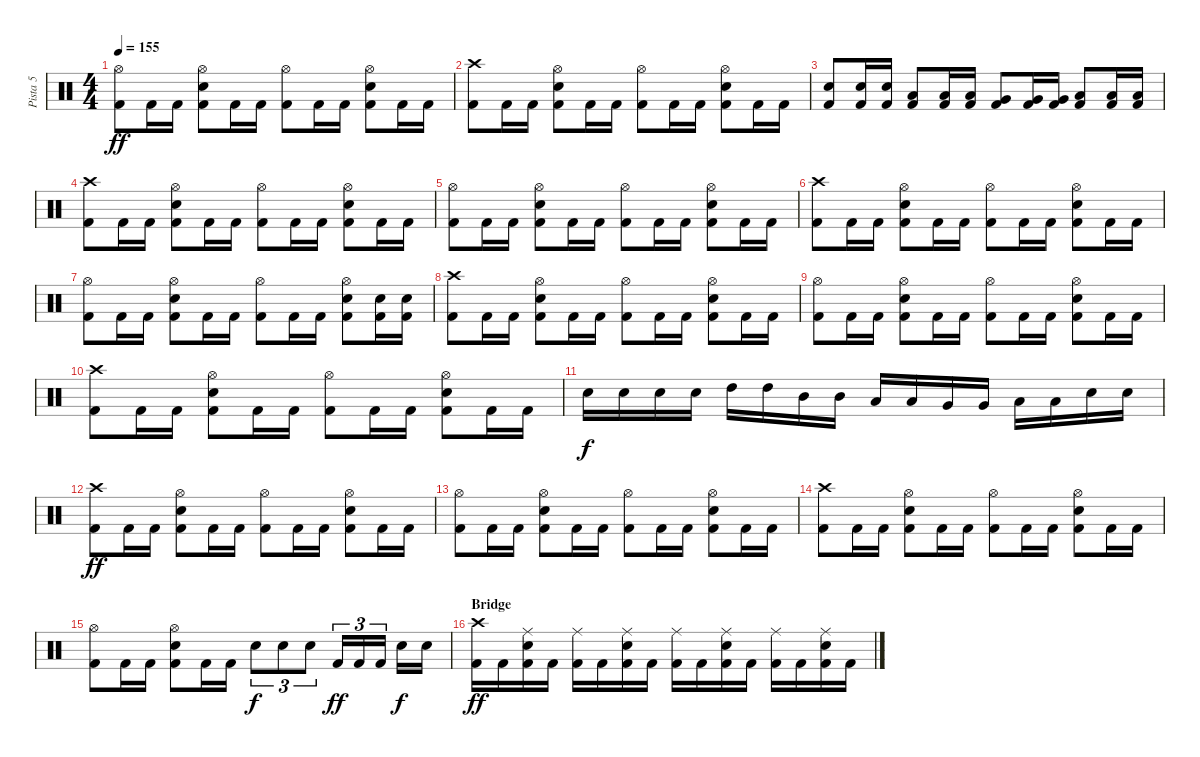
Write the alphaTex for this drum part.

\track ("Pista 5" "Pista 5") {instrument percussion}
\staff {score}
\articulation defaults
\ts (4 4)
\tempo 155
\clef neutral
\ks c
("Hi-Hat (open)" "Kick (hit) 2").8{dy ff} "Kick (hit) 2".16 "Kick (hit) 2".16 ("Hi-Hat (open)" "Electric Snare (hit)" "Kick (hit) 2").8 "Kick (hit) 2".16 "Kick (hit) 2".16 ("Hi-Hat (open)" "Kick (hit) 2").8 "Kick (hit) 2".16 "Kick (hit) 2".16 ("Hi-Hat (open)" "Electric Snare (hit)" "Kick (hit) 2").8 "Kick (hit) 2".16 "Kick (hit) 2".16 |
("Crash high (hit)" "Kick (hit) 2").8 "Kick (hit) 2".16 "Kick (hit) 2".16 ("Hi-Hat (open)" "Electric Snare (hit)" "Kick (hit) 2").8 "Kick (hit) 2".16 "Kick (hit) 2".16 ("Hi-Hat (open)" "Kick (hit) 2").8 "Kick (hit) 2".16 "Kick (hit) 2".16 ("Hi-Hat (open)" "Electric Snare (hit)" "Kick (hit) 2").8 "Kick (hit) 2".16 "Kick (hit) 2".16 |
("Electric Snare (hit)" "Kick (hit) 2").8 ("Electric Snare (hit)" "Kick (hit) 2").16 ("Electric Snare (hit)" "Kick (hit) 2").16 ("Low Tom (hit)" "Kick (hit) 2").8 ("Low Tom (hit)" "Kick (hit) 2").16 ("Low Tom (hit)" "Kick (hit) 2").16 ("Very Low Tom (hit)" "Kick (hit) 2").8 ("Very Low Tom (hit)" "Kick (hit) 2").16 ("Very Low Tom (hit)" "Kick (hit) 2").16 ("Low Floor Tom (hit)" "Kick (hit) 2").8 ("Low Floor Tom (hit)" "Kick (hit) 2").16 ("Low Floor Tom (hit)" "Kick (hit) 2").16 |
("Crash high (hit)" "Kick (hit) 2").8 "Kick (hit) 2".16 "Kick (hit) 2".16 ("Hi-Hat (open)" "Electric Snare (hit)" "Kick (hit) 2").8 "Kick (hit) 2".16 "Kick (hit) 2".16 ("Hi-Hat (open)" "Kick (hit) 2").8 "Kick (hit) 2".16 "Kick (hit) 2".16 ("Hi-Hat (open)" "Electric Snare (hit)" "Kick (hit) 2").8 "Kick (hit) 2".16 "Kick (hit) 2".16 |
("Hi-Hat (open)" "Kick (hit) 2").8 "Kick (hit) 2".16 "Kick (hit) 2".16 ("Hi-Hat (open)" "Electric Snare (hit)" "Kick (hit) 2").8 "Kick (hit) 2".16 "Kick (hit) 2".16 ("Hi-Hat (open)" "Kick (hit) 2").8 "Kick (hit) 2".16 "Kick (hit) 2".16 ("Hi-Hat (open)" "Electric Snare (hit)" "Kick (hit) 2").8 "Kick (hit) 2".16 "Kick (hit) 2".16 |
("Crash high (hit)" "Kick (hit) 2").8 "Kick (hit) 2".16 "Kick (hit) 2".16 ("Hi-Hat (open)" "Electric Snare (hit)" "Kick (hit) 2").8 "Kick (hit) 2".16 "Kick (hit) 2".16 ("Hi-Hat (open)" "Kick (hit) 2").8 "Kick (hit) 2".16 "Kick (hit) 2".16 ("Hi-Hat (open)" "Electric Snare (hit)" "Kick (hit) 2").8 "Kick (hit) 2".16 "Kick (hit) 2".16 |
("Hi-Hat (open)" "Kick (hit) 2").8 "Kick (hit) 2".16 "Kick (hit) 2".16 ("Hi-Hat (open)" "Electric Snare (hit)" "Kick (hit) 2").8 "Kick (hit) 2".16 "Kick (hit) 2".16 ("Hi-Hat (open)" "Kick (hit) 2").8 "Kick (hit) 2".16 "Kick (hit) 2".16 ("Hi-Hat (open)" "Electric Snare (hit)" "Kick (hit) 2").8 ("Electric Snare (hit)" "Kick (hit) 2").16 ("Electric Snare (hit)" "Kick (hit) 2").16 |
("Crash high (hit)" "Kick (hit) 2").8 "Kick (hit) 2".16 "Kick (hit) 2".16 ("Hi-Hat (open)" "Electric Snare (hit)" "Kick (hit) 2").8 "Kick (hit) 2".16 "Kick (hit) 2".16 ("Hi-Hat (open)" "Kick (hit) 2").8 "Kick (hit) 2".16 "Kick (hit) 2".16 ("Hi-Hat (open)" "Electric Snare (hit)" "Kick (hit) 2").8 "Kick (hit) 2".16 "Kick (hit) 2".16 |
("Hi-Hat (open)" "Kick (hit) 2").8 "Kick (hit) 2".16 "Kick (hit) 2".16 ("Hi-Hat (open)" "Electric Snare (hit)" "Kick (hit) 2").8 "Kick (hit) 2".16 "Kick (hit) 2".16 ("Hi-Hat (open)" "Kick (hit) 2").8 "Kick (hit) 2".16 "Kick (hit) 2".16 ("Hi-Hat (open)" "Electric Snare (hit)" "Kick (hit) 2").8 "Kick (hit) 2".16 "Kick (hit) 2".16 |
("Crash high (hit)" "Kick (hit) 2").8 "Kick (hit) 2".16 "Kick (hit) 2".16 ("Hi-Hat (open)" "Electric Snare (hit)" "Kick (hit) 2").8 "Kick (hit) 2".16 "Kick (hit) 2".16 ("Hi-Hat (open)" "Kick (hit) 2").8 "Kick (hit) 2".16 "Kick (hit) 2".16 ("Hi-Hat (open)" "Electric Snare (hit)" "Kick (hit) 2").8 "Kick (hit) 2".16 "Kick (hit) 2".16 |
"Electric Snare (hit)".16{dy f} "Electric Snare (hit)".16 "Electric Snare (hit)".16 "Electric Snare (hit)".16 "High Tom (hit)".16 "High Tom (hit)".16 "Mid Tom (hit)".16 "Mid Tom (hit)".16 "Low Tom (hit)".16 "Low Tom (hit)".16 "Very Low Tom (hit)".16 "Very Low Tom (hit)".16 "Low Floor Tom (hit)".16 "Low Floor Tom (hit)".16 "Electric Snare (hit)".16 "Electric Snare (hit)".16 |
("Crash high (hit)" "Kick (hit) 2").8{dy ff} "Kick (hit) 2".16 "Kick (hit) 2".16 ("Hi-Hat (open)" "Electric Snare (hit)" "Kick (hit) 2").8 "Kick (hit) 2".16 "Kick (hit) 2".16 ("Hi-Hat (open)" "Kick (hit) 2").8 "Kick (hit) 2".16 "Kick (hit) 2".16 ("Hi-Hat (open)" "Electric Snare (hit)" "Kick (hit) 2").8 "Kick (hit) 2".16 "Kick (hit) 2".16 |
("Hi-Hat (open)" "Kick (hit) 2").8 "Kick (hit) 2".16 "Kick (hit) 2".16 ("Hi-Hat (open)" "Electric Snare (hit)" "Kick (hit) 2").8 "Kick (hit) 2".16 "Kick (hit) 2".16 ("Hi-Hat (open)" "Kick (hit) 2").8 "Kick (hit) 2".16 "Kick (hit) 2".16 ("Hi-Hat (open)" "Electric Snare (hit)" "Kick (hit) 2").8 "Kick (hit) 2".16 "Kick (hit) 2".16 |
("Crash high (hit)" "Kick (hit) 2").8 "Kick (hit) 2".16 "Kick (hit) 2".16 ("Hi-Hat (open)" "Electric Snare (hit)" "Kick (hit) 2").8 "Kick (hit) 2".16 "Kick (hit) 2".16 ("Hi-Hat (open)" "Kick (hit) 2").8 "Kick (hit) 2".16 "Kick (hit) 2".16 ("Hi-Hat (open)" "Electric Snare (hit)" "Kick (hit) 2").8 "Kick (hit) 2".16 "Kick (hit) 2".16 |
("Hi-Hat (open)" "Kick (hit) 2").8 "Kick (hit) 2".16 "Kick (hit) 2".16 ("Hi-Hat (open)" "Electric Snare (hit)" "Kick (hit) 2").8 "Kick (hit) 2".16 "Kick (hit) 2".16 "Electric Snare (hit)".8{tu (3 2) dy f} "Electric Snare (hit)".8{tu (3 2)} "Electric Snare (hit)".8{tu (3 2)} "Kick (hit) 2".16{tu (3 2) dy ff} "Kick (hit) 2".16{tu (3 2)} "Kick (hit) 2".16{tu (3 2)} "Electric Snare (hit)".16{dy f} "Electric Snare (hit)".16 |
\section ("" "Bridge")
("Crash high (hit)" "Kick (hit) 2").16{dy ff} "Kick (hit) 2".16 ("Ride (middle)" "Electric Snare (hit)" "Kick (hit) 2").16 "Kick (hit) 2".16 ("Ride (middle)" "Kick (hit) 2").16 "Kick (hit) 2".16 ("Ride (middle)" "Electric Snare (hit)" "Kick (hit) 2").16 "Kick (hit) 2".16 ("Ride (middle)" "Kick (hit) 2").16 "Kick (hit) 2".16 ("Ride (middle)" "Electric Snare (hit)" "Kick (hit) 2").16 "Kick (hit) 2".16 ("Ride (middle)" "Kick (hit) 2").16 "Kick (hit) 2".16 ("Ride (middle)" "Electric Snare (hit)" "Kick (hit) 2").16 "Kick (hit) 2".16
